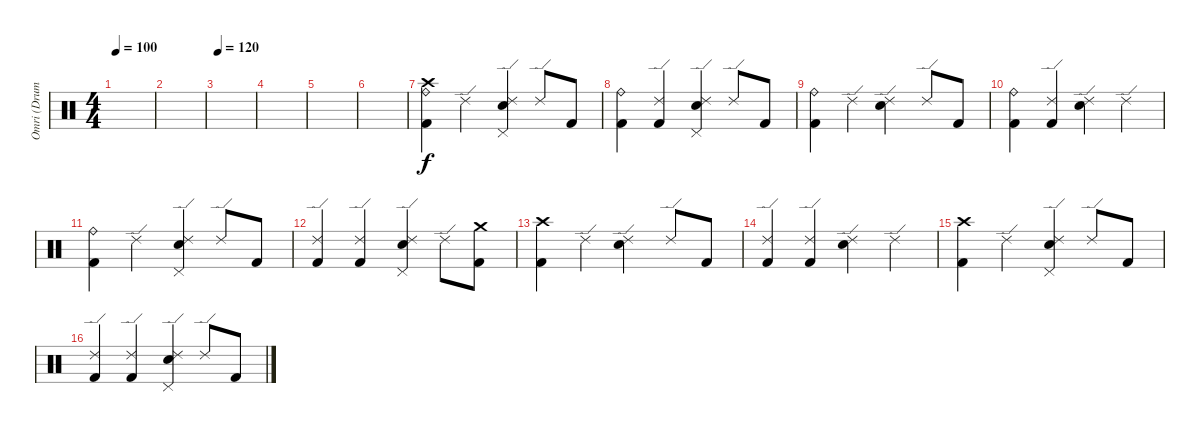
\track ("Omri (Drums)" "Omri (Drum") {instrument percussion}
\staff {score}
\articulation defaults
\ts (4 4)
\tempo 100
\clef neutral
\ks c
|
|
\tempo 120
|
|
|
|
("Crash high (hit)" "Ride (bell)" "Kick (hit) 2").4 "Ride (edge) 2".4 ("Ride (edge) 2" "Snare (hit) 2" "Pedal Hi-Hat (hit)").4 "Ride (edge) 2".8 "Kick (hit) 2".8 |
("Ride (bell)" "Kick (hit) 2").4 ("Ride (edge) 2" "Kick (hit) 2").4 ("Ride (edge) 2" "Snare (hit) 2" "Pedal Hi-Hat (hit)").4 "Ride (edge) 2".8 "Kick (hit) 2".8 |
("Ride (bell)" "Kick (hit) 2").4 "Ride (edge) 2".4 ("Ride (edge) 2" "Snare (hit) 2").4 "Ride (edge) 2".8 "Kick (hit) 2".8 |
("Ride (bell)" "Kick (hit) 2").4 ("Ride (edge) 2" "Kick (hit) 2").4 ("Ride (edge) 2" "Snare (hit) 2").4 "Ride (edge) 2".4 |
("Ride (bell)" "Kick (hit) 2").4 "Ride (edge) 2".4 ("Ride (edge) 2" "Snare (hit) 2" "Pedal Hi-Hat (hit)").4 "Ride (edge) 2".8 "Kick (hit) 2".8 |
("Ride (edge) 2" "Kick (hit) 2").4 ("Ride (edge) 2" "Kick (hit) 2").4 ("Ride (edge) 2" "Snare (hit) 2" "Pedal Hi-Hat (hit)").4 "Ride (edge) 2".8 ("Crash medium (hit)" "Kick (hit) 2").8 |
("Crash high (hit)" "Kick (hit) 2").4 "Ride (edge) 2".4 ("Ride (edge) 2" "Snare (hit) 2").4 "Ride (edge) 2".8 "Kick (hit) 2".8 |
("Ride (edge) 2" "Kick (hit) 2").4 ("Ride (edge) 2" "Kick (hit) 2").4 ("Ride (edge) 2" "Snare (hit) 2").4 "Ride (edge) 2".4 |
("Crash high (hit)" "Kick (hit) 2").4 "Ride (edge) 2".4 ("Ride (edge) 2" "Snare (hit) 2" "Pedal Hi-Hat (hit)").4 "Ride (edge) 2".8 "Kick (hit) 2".8 |
("Ride (edge) 2" "Kick (hit) 2").4 ("Ride (edge) 2" "Kick (hit) 2").4 ("Ride (edge) 2" "Snare (hit) 2" "Pedal Hi-Hat (hit)").4 "Ride (edge) 2".8 "Kick (hit) 2".8
